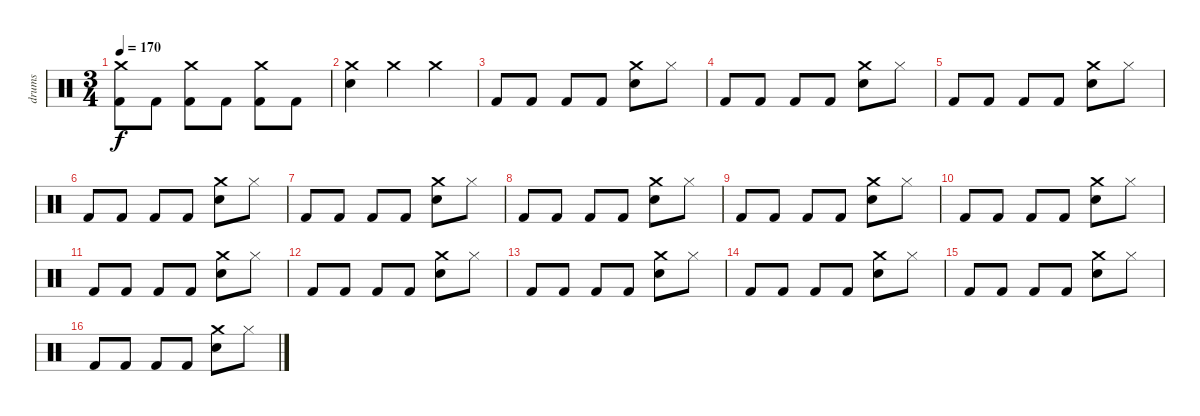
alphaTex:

\track ("drums" "drums") {instrument percussion}
\staff {score}
\articulation defaults
\ts (3 4)
\tempo 170
\clef neutral
\ks c
("Kick (hit) 2" "Crash medium (hit)").8{dy f} "Kick (hit) 2".8 ("Kick (hit) 2" "Crash medium (hit)").8 "Kick (hit) 2".8 ("Kick (hit) 2" "Crash medium (hit)").8 "Kick (hit) 2".8 |
("Snare (hit) 2" "Crash medium (hit)").4 "Crash medium (hit)".4 "Crash medium (hit)".4 |
"Kick (hit) 2".8 "Kick (hit) 2".8 "Kick (hit) 2".8 "Kick (hit) 2".8 ("Snare (hit) 2" "Crash medium (hit)").8 "Hi-Hat (closed)".8 |
"Kick (hit) 2".8 "Kick (hit) 2".8 "Kick (hit) 2".8 "Kick (hit) 2".8 ("Snare (hit) 2" "Crash medium (hit)").8 "Hi-Hat (closed)".8 |
"Kick (hit) 2".8 "Kick (hit) 2".8 "Kick (hit) 2".8 "Kick (hit) 2".8 ("Snare (hit) 2" "Crash medium (hit)").8 "Hi-Hat (closed)".8 |
"Kick (hit) 2".8 "Kick (hit) 2".8 "Kick (hit) 2".8 "Kick (hit) 2".8 ("Snare (hit) 2" "Crash medium (hit)").8 "Hi-Hat (closed)".8 |
"Kick (hit) 2".8 "Kick (hit) 2".8 "Kick (hit) 2".8 "Kick (hit) 2".8 ("Snare (hit) 2" "Crash medium (hit)").8 "Hi-Hat (closed)".8 |
"Kick (hit) 2".8 "Kick (hit) 2".8 "Kick (hit) 2".8 "Kick (hit) 2".8 ("Snare (hit) 2" "Crash medium (hit)").8 "Hi-Hat (closed)".8 |
"Kick (hit) 2".8 "Kick (hit) 2".8 "Kick (hit) 2".8 "Kick (hit) 2".8 ("Snare (hit) 2" "Crash medium (hit)").8 "Hi-Hat (closed)".8 |
"Kick (hit) 2".8 "Kick (hit) 2".8 "Kick (hit) 2".8 "Kick (hit) 2".8 ("Snare (hit) 2" "Crash medium (hit)").8 "Hi-Hat (closed)".8 |
"Kick (hit) 2".8 "Kick (hit) 2".8 "Kick (hit) 2".8 "Kick (hit) 2".8 ("Snare (hit) 2" "Crash medium (hit)").8 "Hi-Hat (closed)".8 |
"Kick (hit) 2".8 "Kick (hit) 2".8 "Kick (hit) 2".8 "Kick (hit) 2".8 ("Snare (hit) 2" "Crash medium (hit)").8 "Hi-Hat (closed)".8 |
"Kick (hit) 2".8 "Kick (hit) 2".8 "Kick (hit) 2".8 "Kick (hit) 2".8 ("Snare (hit) 2" "Crash medium (hit)").8 "Hi-Hat (closed)".8 |
"Kick (hit) 2".8 "Kick (hit) 2".8 "Kick (hit) 2".8 "Kick (hit) 2".8 ("Snare (hit) 2" "Crash medium (hit)").8 "Hi-Hat (closed)".8 |
"Kick (hit) 2".8 "Kick (hit) 2".8 "Kick (hit) 2".8 "Kick (hit) 2".8 ("Snare (hit) 2" "Crash medium (hit)").8 "Hi-Hat (closed)".8 |
"Kick (hit) 2".8 "Kick (hit) 2".8 "Kick (hit) 2".8 "Kick (hit) 2".8 ("Snare (hit) 2" "Crash medium (hit)").8 "Hi-Hat (closed)".8
